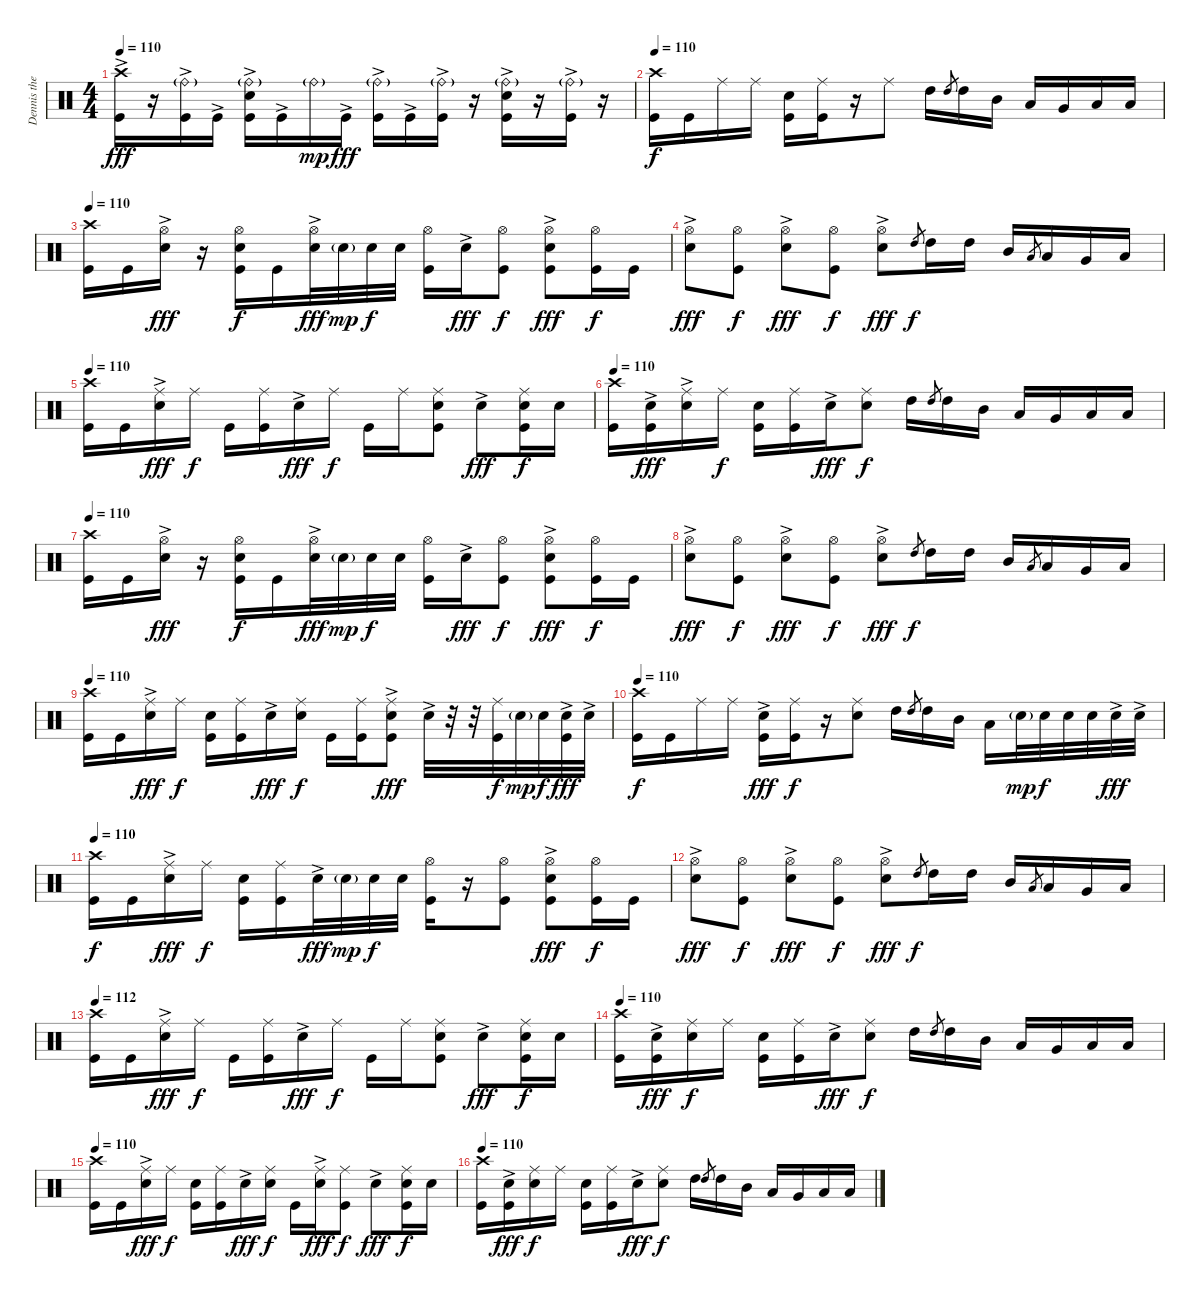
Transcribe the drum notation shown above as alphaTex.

\track ("Dennis the Menace" "Dennis the") {instrument percussion}
\staff {score}
\articulation defaults
\ts (4 4)
\tempo 112
\tempo 110
\clef neutral
\ks c
("Crash high (hit)" "Kick (hit)"{ac}).16{dy fff} r.16 ("Ride (bell)"{g} "Kick (hit)"{ac}).16 "Kick (hit)"{ac}.16 ("Ride (bell)"{g} "Electric Snare (hit)"{ac} "Kick (hit)"{ac}).16 "Kick (hit)"{ac}.16 "Ride (bell)"{g}.16{dy mp} "Kick (hit)"{ac}.16{dy fff} ("Ride (bell)"{g} "Kick (hit)"{ac}).16 "Kick (hit)"{ac}.16 ("Ride (bell)"{g} "Kick (hit)"{ac}).16 r.16 ("Ride (bell)"{g} "Electric Snare (hit)"{ac} "Kick (hit)"{ac}).16 r.16 ("Ride (bell)"{g} "Kick (hit)"{ac}).16 r.16 |
\tempo 110
("Crash high (hit)" "Kick (hit)").16{dy f} "Kick (hit)".16 "Ride (middle)".16 "Ride (middle)".16 ("Electric Snare (hit)" "Kick (hit)").16 ("Ride (middle)" "Kick (hit)").16 r.16 "Ride (middle)".8 "High Tom (hit)".16 "High Tom (hit)".8{gr} "High Tom (hit)".16 "Mid Tom (hit)".16 "Low Tom (hit)".16 "Very Low Tom (hit)".16 "Low Floor Tom (hit)".16 "Low Floor Tom (hit)".16 |
\tempo 110
("Crash high (hit)" "Kick (hit)").16 "Kick (hit)".16 ("Hi-Hat (open)" "Electric Snare (hit)"{ac}).16{dy fff} r.16 ("Hi-Hat (open)" "Electric Snare (hit)" "Kick (hit)").16{dy f} "Kick (hit)".16 ("Hi-Hat (open)" "Electric Snare (hit)"{ac}).32{dy fff} "Electric Snare (hit)"{g}.32{dy mp} "Electric Snare (hit)".32{dy f} "Electric Snare (hit)".32 ("Hi-Hat (open)" "Kick (hit)").16 "Electric Snare (hit)"{ac}.16{dy fff} ("Hi-Hat (open)" "Kick (hit)").8{dy f} ("Hi-Hat (open)" "Electric Snare (hit)"{ac} "Kick (hit)").8{dy fff} ("Hi-Hat (open)" "Kick (hit)").16{dy f} "Kick (hit)".16 |
("Hi-Hat (open)" "Electric Snare (hit)"{ac}).8{dy fff} ("Hi-Hat (open)" "Kick (hit)").8{dy f} ("Hi-Hat (open)" "Electric Snare (hit)"{ac}).8{dy fff} ("Hi-Hat (open)" "Kick (hit)").8{dy f} ("Hi-Hat (open)" "Electric Snare (hit)"{ac}).8{dy fff} "High Tom (hit)".8{gr dy f} "High Tom (hit)".16 "High Tom (hit)".16 "Mid Tom (hit)".16 "Low Tom (hit)".8{gr} "Low Tom (hit)".16 "Very Low Tom (hit)".16 "Low Floor Tom (hit)".16 |
\tempo 112
\tempo 110
("Crash high (hit)" "Kick (hit)").16 "Kick (hit)".16 ("Ride (middle)" "Electric Snare (hit)"{ac}).16{dy fff} "Ride (middle)".16{dy f} "Kick (hit)".16 ("Ride (middle)" "Kick (hit)").16 "Electric Snare (hit)"{ac}.16{dy fff} "Ride (middle)".16{dy f} "Kick (hit)".16 "Ride (middle)".16 ("Ride (middle)" "Electric Snare (hit)" "Kick (hit)").8 "Electric Snare (hit)"{ac}.8{dy fff} ("Ride (middle)" "Electric Snare (hit)" "Kick (hit)").16{dy f} "Electric Snare (hit)".16 |
\tempo 110
("Crash high (hit)" "Kick (hit)").16 ("Electric Snare (hit)"{ac} "Kick (hit)").16{dy fff} ("Ride (middle)"{ac} "Electric Snare (hit)").16 "Ride (middle)".16{dy f} ("Electric Snare (hit)" "Kick (hit)").16 ("Ride (middle)" "Kick (hit)").16 "Electric Snare (hit)"{ac}.16{dy fff} ("Ride (middle)" "Electric Snare (hit)").8{dy f} "High Tom (hit)".16 "High Tom (hit)".8{gr} "High Tom (hit)".16 "Mid Tom (hit)".16 "Low Tom (hit)".16 "Very Low Tom (hit)".16 "Low Floor Tom (hit)".16 "Low Floor Tom (hit)".16 |
\tempo 110
("Crash high (hit)" "Kick (hit)").16 "Kick (hit)".16 ("Hi-Hat (open)" "Electric Snare (hit)"{ac}).16{dy fff} r.16 ("Hi-Hat (open)" "Electric Snare (hit)" "Kick (hit)").16{dy f} "Kick (hit)".16 ("Hi-Hat (open)" "Electric Snare (hit)"{ac}).32{dy fff} "Electric Snare (hit)"{g}.32{dy mp} "Electric Snare (hit)".32{dy f} "Electric Snare (hit)".32 ("Hi-Hat (open)" "Kick (hit)").16 "Electric Snare (hit)"{ac}.16{dy fff} ("Hi-Hat (open)" "Kick (hit)").8{dy f} ("Hi-Hat (open)" "Electric Snare (hit)"{ac} "Kick (hit)").8{dy fff} ("Hi-Hat (open)" "Kick (hit)").16{dy f} "Kick (hit)".16 |
("Hi-Hat (open)" "Electric Snare (hit)"{ac}).8{dy fff} ("Hi-Hat (open)" "Kick (hit)").8{dy f} ("Hi-Hat (open)" "Electric Snare (hit)"{ac}).8{dy fff} ("Hi-Hat (open)" "Kick (hit)").8{dy f} ("Hi-Hat (open)" "Electric Snare (hit)"{ac}).8{dy fff} "High Tom (hit)".8{gr dy f} "High Tom (hit)".16 "High Tom (hit)".16 "Mid Tom (hit)".16 "Low Tom (hit)".8{gr} "Low Tom (hit)".16 "Very Low Tom (hit)".16 "Low Floor Tom (hit)".16 |
\tempo 110
("Crash high (hit)" "Kick (hit)").16 "Kick (hit)".16 ("Ride (middle)" "Electric Snare (hit)"{ac}).16{dy fff} "Ride (middle)".16{dy f} ("Electric Snare (hit)" "Kick (hit)").16 ("Ride (middle)" "Kick (hit)").16 "Electric Snare (hit)"{ac}.16{dy fff} ("Ride (middle)" "Electric Snare (hit)").16{dy f} "Kick (hit)".16 ("Ride (middle)" "Kick (hit)").16 ("Ride (middle)" "Electric Snare (hit)"{ac} "Kick (hit)").8{dy fff} "Electric Snare (hit)"{ac}.32 r.32 r.32 ("Ride (middle)" "Kick (hit)").32{dy f} "Electric Snare (hit)"{g}.32{dy mp} "Electric Snare (hit)".32{dy f} ("Electric Snare (hit)"{ac} "Kick (hit)").32{dy fff} "Electric Snare (hit)"{ac}.32 |
\tempo 110
("Crash high (hit)" "Kick (hit)").16{dy f} "Kick (hit)".16 "Ride (middle)".16 "Ride (middle)".16 ("Electric Snare (hit)"{ac} "Kick (hit)").16{dy fff} ("Ride (middle)" "Kick (hit)").16{dy f} r.16 ("Ride (middle)" "Electric Snare (hit)").8 "High Tom (hit)".16 "High Tom (hit)".8{gr} "High Tom (hit)".16 "Mid Tom (hit)".16 "Low Tom (hit)".16 "Electric Snare (hit)"{g}.32{dy mp} "Electric Snare (hit)".32{dy f} "Electric Snare (hit)".32 "Electric Snare (hit)".32 "Electric Snare (hit)"{ac}.32{dy fff} "Electric Snare (hit)"{ac}.32 |
\tempo 110
("Crash high (hit)" "Kick (hit)").16{dy f} "Kick (hit)".16 ("Ride (middle)" "Electric Snare (hit)"{ac}).16{dy fff} "Ride (middle)".16{dy f} ("Electric Snare (hit)" "Kick (hit)").16 ("Ride (middle)" "Kick (hit)").16 "Electric Snare (hit)"{ac}.32{dy fff} "Electric Snare (hit)"{g}.32{dy mp} "Electric Snare (hit)".32{dy f} "Electric Snare (hit)".32 ("Hi-Hat (open)" "Kick (hit)").16 r.16 ("Hi-Hat (open)" "Kick (hit)").8 ("Hi-Hat (open)" "Electric Snare (hit)"{ac} "Kick (hit)").8{dy fff} ("Hi-Hat (open)" "Kick (hit)").16{dy f} "Kick (hit)".16 |
("Hi-Hat (open)" "Electric Snare (hit)"{ac}).8{dy fff} ("Hi-Hat (open)" "Kick (hit)").8{dy f} ("Hi-Hat (open)" "Electric Snare (hit)"{ac}).8{dy fff} ("Hi-Hat (open)" "Kick (hit)").8{dy f} ("Hi-Hat (open)" "Electric Snare (hit)"{ac}).8{dy fff} "High Tom (hit)".8{gr dy f} "High Tom (hit)".16 "High Tom (hit)".16 "Mid Tom (hit)".16 "Low Tom (hit)".8{gr} "Low Tom (hit)".16 "Very Low Tom (hit)".16 "Low Floor Tom (hit)".16 |
\tempo 110
\tempo 112
("Crash high (hit)" "Kick (hit)").16 "Kick (hit)".16 ("Ride (middle)" "Electric Snare (hit)"{ac}).16{dy fff} "Ride (middle)".16{dy f} "Kick (hit)".16 ("Ride (middle)" "Kick (hit)").16 "Electric Snare (hit)"{ac}.16{dy fff} "Ride (middle)".16{dy f} "Kick (hit)".16 "Ride (middle)".16 ("Ride (middle)" "Electric Snare (hit)" "Kick (hit)").8 "Electric Snare (hit)"{ac}.8{dy fff} ("Ride (middle)" "Electric Snare (hit)" "Kick (hit)").16{dy f} "Electric Snare (hit)".16 |
\tempo 110
("Crash high (hit)" "Kick (hit)").16 ("Electric Snare (hit)"{ac} "Kick (hit)").16{dy fff} ("Ride (middle)" "Electric Snare (hit)").16{dy f} "Ride (middle)".16 ("Electric Snare (hit)" "Kick (hit)").16 ("Ride (middle)" "Kick (hit)").16 "Electric Snare (hit)"{ac}.16{dy fff} ("Ride (middle)" "Electric Snare (hit)").8{dy f} "High Tom (hit)".16 "High Tom (hit)".8{gr} "High Tom (hit)".16 "Mid Tom (hit)".16 "Low Tom (hit)".16 "Very Low Tom (hit)".16 "Low Floor Tom (hit)".16 "Low Floor Tom (hit)".16 |
\tempo 110
("Crash high (hit)" "Kick (hit)").16 "Kick (hit)".16 ("Ride (middle)" "Electric Snare (hit)"{ac}).16{dy fff} "Ride (middle)".16{dy f} ("Electric Snare (hit)" "Kick (hit)").16 ("Ride (middle)" "Kick (hit)").16 "Electric Snare (hit)"{ac}.16{dy fff} ("Ride (middle)" "Electric Snare (hit)").16{dy f} "Kick (hit)".16 ("Ride (middle)" "Electric Snare (hit)"{ac}).16{dy fff} ("Ride (middle)" "Kick (hit)").8{dy f} "Electric Snare (hit)"{ac}.8{dy fff} ("Ride (middle)" "Electric Snare (hit)" "Kick (hit)").16{dy f} "Electric Snare (hit)".16 |
\tempo 110
("Crash high (hit)" "Kick (hit)").16 ("Electric Snare (hit)"{ac} "Kick (hit)").16{dy fff} ("Ride (middle)" "Electric Snare (hit)").16{dy f} "Ride (middle)".16 ("Electric Snare (hit)" "Kick (hit)").16 ("Ride (middle)" "Kick (hit)").16 "Electric Snare (hit)"{ac}.16{dy fff} ("Ride (middle)" "Electric Snare (hit)").8{dy f} "High Tom (hit)".16 "High Tom (hit)".8{gr} "High Tom (hit)".16 "Mid Tom (hit)".16 "Low Tom (hit)".16 "Very Low Tom (hit)".16 "Low Floor Tom (hit)".16 "Low Floor Tom (hit)".16
